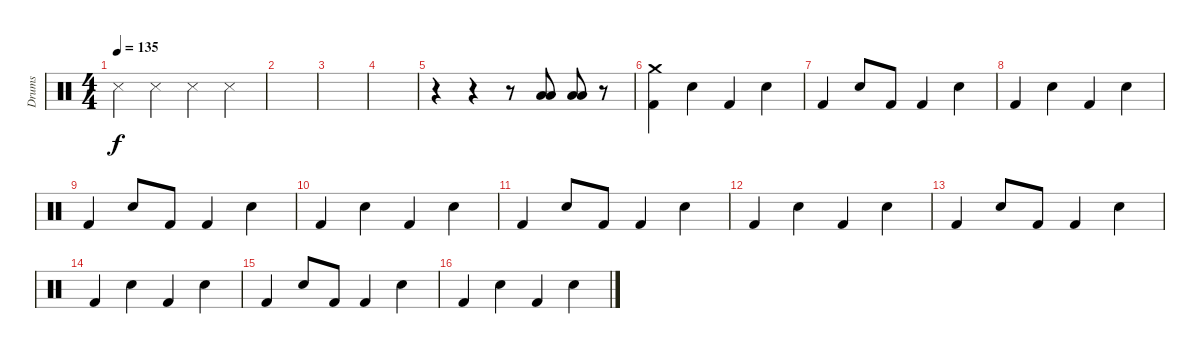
\track ("Drums" "Drums") {instrument percussion}
\staff {score}
\articulation defaults
\ts (4 4)
\tempo 135
\clef neutral
\ks c "Snare (side stick) 3".4{dy f} "Snare (side stick) 3".4 "Snare (side stick) 3".4 "Snare (side stick) 3".4
|
|
|
|
r.4 r.4 r.8 ("Low Tom (hit)" "Low Tom (hit)").8 ("Low Tom (hit)" "Low Tom (hit)").8 r.8 |
("Crash medium (hit)" "Kick (hit) 2").4 "Electric Snare (hit)".4 "Kick (hit) 2".4 "Electric Snare (hit)".4 |
"Kick (hit) 2".4 "Electric Snare (hit)".8 "Kick (hit) 2".8 "Kick (hit) 2".4 "Electric Snare (hit)".4 |
"Kick (hit) 2".4 "Electric Snare (hit)".4 "Kick (hit) 2".4 "Electric Snare (hit)".4 |
"Kick (hit) 2".4 "Electric Snare (hit)".8 "Kick (hit) 2".8 "Kick (hit) 2".4 "Electric Snare (hit)".4 |
"Kick (hit) 2".4 "Electric Snare (hit)".4 "Kick (hit) 2".4 "Electric Snare (hit)".4 |
"Kick (hit) 2".4 "Electric Snare (hit)".8 "Kick (hit) 2".8 "Kick (hit) 2".4 "Electric Snare (hit)".4 |
"Kick (hit) 2".4 "Electric Snare (hit)".4 "Kick (hit) 2".4 "Electric Snare (hit)".4 |
"Kick (hit) 2".4 "Electric Snare (hit)".8 "Kick (hit) 2".8 "Kick (hit) 2".4 "Electric Snare (hit)".4 |
"Kick (hit) 2".4 "Electric Snare (hit)".4 "Kick (hit) 2".4 "Electric Snare (hit)".4 |
"Kick (hit) 2".4 "Electric Snare (hit)".8 "Kick (hit) 2".8 "Kick (hit) 2".4 "Electric Snare (hit)".4 |
"Kick (hit) 2".4 "Electric Snare (hit)".4 "Kick (hit) 2".4 "Electric Snare (hit)".4
